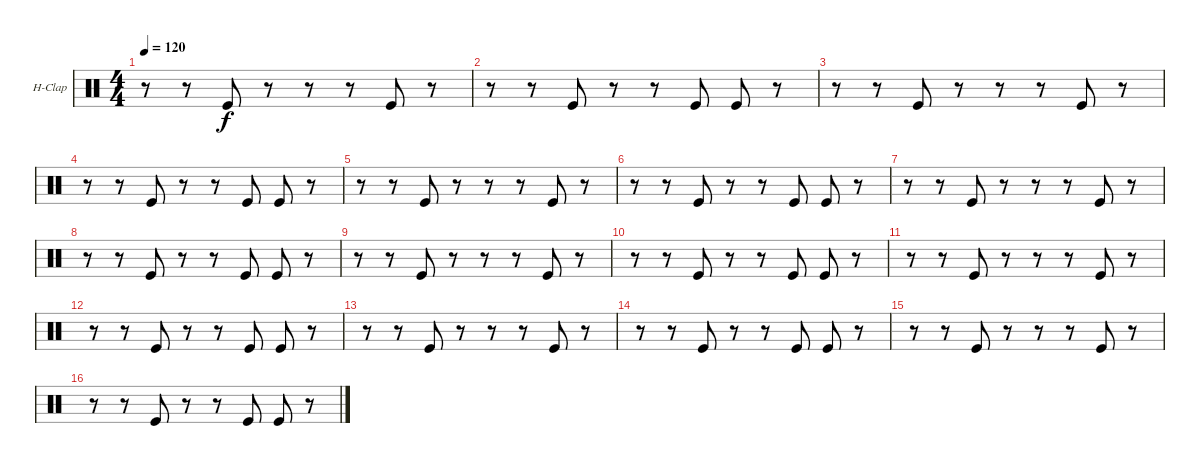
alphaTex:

\defaultSystemsLayout 4
\bracketExtendMode groupsimilarinstruments
\firstSystemTrackNameOrientation horizontal
\otherSystemsTrackNameOrientation horizontal
\track ("Hand Clap" "H-Clap") {instrument percussion}
\staff {score}
\articulation defaults
\ts (4 4)
\tempo 120
\clef neutral
\ks c
r.8{dy f} r.8 "Kick (hit)".8 r.8 r.8 r.8 "Kick (hit)".8 r.8 |
r.8 r.8 "Kick (hit)".8 r.8 r.8 "Kick (hit)".8 "Kick (hit)".8 r.8 |
r.8 r.8 "Kick (hit)".8 r.8 r.8 r.8 "Kick (hit)".8 r.8 |
r.8 r.8 "Kick (hit)".8 r.8 r.8 "Kick (hit)".8 "Kick (hit)".8 r.8 |
r.8 r.8 "Kick (hit)".8 r.8 r.8 r.8 "Kick (hit)".8 r.8 |
r.8 r.8 "Kick (hit)".8 r.8 r.8 "Kick (hit)".8 "Kick (hit)".8 r.8 |
r.8 r.8 "Kick (hit)".8 r.8 r.8 r.8 "Kick (hit)".8 r.8 |
r.8 r.8 "Kick (hit)".8 r.8 r.8 "Kick (hit)".8 "Kick (hit)".8 r.8 |
r.8 r.8 "Kick (hit)".8 r.8 r.8 r.8 "Kick (hit)".8 r.8 |
r.8 r.8 "Kick (hit)".8 r.8 r.8 "Kick (hit)".8 "Kick (hit)".8 r.8 |
r.8 r.8 "Kick (hit)".8 r.8 r.8 r.8 "Kick (hit)".8 r.8 |
r.8 r.8 "Kick (hit)".8 r.8 r.8 "Kick (hit)".8 "Kick (hit)".8 r.8 |
r.8 r.8 "Kick (hit)".8 r.8 r.8 r.8 "Kick (hit)".8 r.8 |
r.8 r.8 "Kick (hit)".8 r.8 r.8 "Kick (hit)".8 "Kick (hit)".8 r.8 |
r.8 r.8 "Kick (hit)".8 r.8 r.8 r.8 "Kick (hit)".8 r.8 |
r.8 r.8 "Kick (hit)".8 r.8 r.8 "Kick (hit)".8 "Kick (hit)".8 r.8
